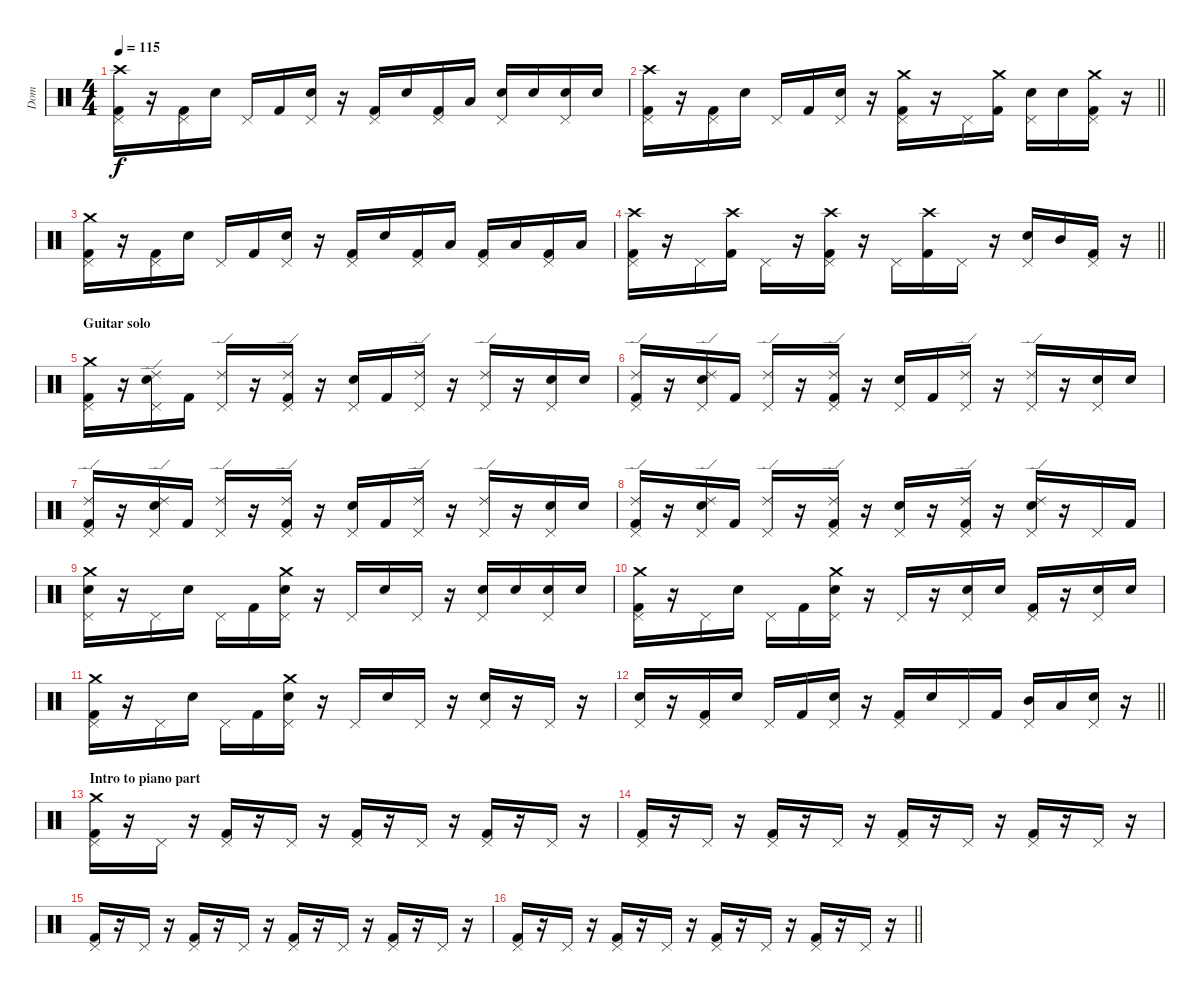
\track ("Dom" "Dom") {instrument percussion}
\staff {score}
\articulation defaults
\ts (4 4)
\tempo 115
\clef neutral
\ks c
("Crash high (hit)" "Pedal Hi-Hat (hit)" "Kick (hit) 2").16{dy f} r.16 ("Pedal Hi-Hat (hit)" "Kick (hit) 2").16 "Snare (hit) 2".16 "Pedal Hi-Hat (hit)".16 "Kick (hit) 2".16 ("Snare (hit) 2" "Pedal Hi-Hat (hit)").16 r.16 ("Pedal Hi-Hat (hit)" "Kick (hit) 2").16 "Snare (hit) 2".16 ("Pedal Hi-Hat (hit)" "Kick (hit) 2").16 "Low Floor Tom (hit)".16 ("Snare (hit) 2" "Pedal Hi-Hat (hit)").16 "Snare (hit) 2".16 ("Snare (hit) 2" "Pedal Hi-Hat (hit)").16 "Snare (hit) 2".16 |
\barLineRight lightlight
("Crash high (hit)" "Pedal Hi-Hat (hit)" "Kick (hit) 2").16 r.16 ("Pedal Hi-Hat (hit)" "Kick (hit) 2").16 "Snare (hit) 2".16 "Pedal Hi-Hat (hit)".16 "Kick (hit) 2".16 ("Snare (hit) 2" "Pedal Hi-Hat (hit)").16 r.16 ("Crash medium (hit)" "Pedal Hi-Hat (hit)" "Kick (hit) 2").16 r.16 "Pedal Hi-Hat (hit)".16 ("Crash medium (hit)" "Kick (hit) 2").16 ("Snare (hit) 2" "Pedal Hi-Hat (hit)").16 "Snare (hit) 2".16 ("Crash medium (hit)" "Pedal Hi-Hat (hit)" "Kick (hit) 2").16 r.16 |
("Crash medium (hit)" "Pedal Hi-Hat (hit)" "Kick (hit) 2").16 r.16 ("Pedal Hi-Hat (hit)" "Kick (hit) 2").16 "Snare (hit) 2".16 "Pedal Hi-Hat (hit)".16 "Kick (hit) 2".16 ("Snare (hit) 2" "Pedal Hi-Hat (hit)").16 r.16 ("Pedal Hi-Hat (hit)" "Kick (hit) 2").16 "Snare (hit) 2".16 ("Pedal Hi-Hat (hit)" "Kick (hit) 2").16 "Low Floor Tom (hit)".16 ("Pedal Hi-Hat (hit)" "Kick (hit) 2").16 "Low Floor Tom (hit)".16 ("Pedal Hi-Hat (hit)" "Kick (hit) 2").16 "Low Floor Tom (hit)".16 |
\barLineRight lightlight
("Crash high (hit)" "Pedal Hi-Hat (hit)" "Kick (hit) 2").16 r.16 "Pedal Hi-Hat (hit)".16 ("Crash high (hit)" "Kick (hit) 2").16 "Pedal Hi-Hat (hit)".16 r.16 ("Crash high (hit)" "Pedal Hi-Hat (hit)" "Kick (hit) 2").16 r.16 "Pedal Hi-Hat (hit)".16 ("Crash high (hit)" "Kick (hit) 2").16 "Pedal Hi-Hat (hit)".16 r.16 ("Snare (hit) 2" "Pedal Hi-Hat (hit)").16 "Mid Tom (hit)".16 ("Pedal Hi-Hat (hit)" "Kick (hit) 2").16 r.16 |
\section ("" "Guitar solo")
("Crash medium (hit)" "Pedal Hi-Hat (hit)" "Kick (hit) 2").16 r.16 ("Ride (edge) 2" "Snare (hit) 2" "Pedal Hi-Hat (hit)").16 "Kick (hit) 2".16 ("Ride (edge) 2" "Pedal Hi-Hat (hit)").16 r.16 ("Ride (edge) 2" "Pedal Hi-Hat (hit)" "Kick (hit) 2").16 r.16 ("Snare (hit) 2" "Pedal Hi-Hat (hit)").16 "Kick (hit) 2".16 ("Ride (edge) 2" "Pedal Hi-Hat (hit)").16 r.16 ("Ride (edge) 2" "Pedal Hi-Hat (hit)").16 r.16 ("Snare (hit) 2" "Pedal Hi-Hat (hit)").16 "Snare (hit) 2".16 |
("Ride (edge) 2" "Pedal Hi-Hat (hit)" "Kick (hit) 2").16 r.16 ("Ride (edge) 2" "Snare (hit) 2" "Pedal Hi-Hat (hit)").16 "Kick (hit) 2".16 ("Ride (edge) 2" "Pedal Hi-Hat (hit)").16 r.16 ("Ride (edge) 2" "Pedal Hi-Hat (hit)" "Kick (hit) 2").16 r.16 ("Snare (hit) 2" "Pedal Hi-Hat (hit)").16 "Kick (hit) 2".16 ("Ride (edge) 2" "Pedal Hi-Hat (hit)").16 r.16 ("Ride (edge) 2" "Pedal Hi-Hat (hit)").16 r.16 ("Snare (hit) 2" "Pedal Hi-Hat (hit)").16 "Snare (hit) 2".16 |
("Ride (edge) 2" "Pedal Hi-Hat (hit)" "Kick (hit) 2").16 r.16 ("Ride (edge) 2" "Snare (hit) 2" "Pedal Hi-Hat (hit)").16 "Kick (hit) 2".16 ("Ride (edge) 2" "Pedal Hi-Hat (hit)").16 r.16 ("Ride (edge) 2" "Pedal Hi-Hat (hit)" "Kick (hit) 2").16 r.16 ("Snare (hit) 2" "Pedal Hi-Hat (hit)").16 "Kick (hit) 2".16 ("Ride (edge) 2" "Pedal Hi-Hat (hit)").16 r.16 ("Ride (edge) 2" "Pedal Hi-Hat (hit)").16 r.16 ("Snare (hit) 2" "Pedal Hi-Hat (hit)").16 "Snare (hit) 2".16 |
("Ride (edge) 2" "Pedal Hi-Hat (hit)" "Kick (hit) 2").16 r.16 ("Ride (edge) 2" "Snare (hit) 2" "Pedal Hi-Hat (hit)").16 "Kick (hit) 2".16 ("Ride (edge) 2" "Pedal Hi-Hat (hit)").16 r.16 ("Ride (edge) 2" "Pedal Hi-Hat (hit)" "Kick (hit) 2").16 r.16 ("Snare (hit) 2" "Pedal Hi-Hat (hit)").16 r.16 ("Ride (edge) 2" "Pedal Hi-Hat (hit)" "Kick (hit) 2").16 r.16 ("Ride (edge) 2" "Snare (hit) 2" "Pedal Hi-Hat (hit)").16 r.16 "Pedal Hi-Hat (hit)".16 "Kick (hit) 2".16 |
("Crash medium (hit)" "Snare (hit) 2" "Pedal Hi-Hat (hit)").16 r.16 "Pedal Hi-Hat (hit)".16 "Snare (hit) 2".16 "Pedal Hi-Hat (hit)".16 "Kick (hit) 2".16 ("Crash medium (hit)" "Snare (hit) 2" "Pedal Hi-Hat (hit)").16 r.16 "Pedal Hi-Hat (hit)".16 "Snare (hit) 2".16 "Pedal Hi-Hat (hit)".16 r.16 ("Snare (hit) 2" "Pedal Hi-Hat (hit)").16 "Snare (hit) 2".16 ("Snare (hit) 2" "Pedal Hi-Hat (hit)").16 "Snare (hit) 2".16 |
("Crash medium (hit)" "Pedal Hi-Hat (hit)" "Kick (hit) 2").16 r.16 "Pedal Hi-Hat (hit)".16 "Snare (hit) 2".16 "Pedal Hi-Hat (hit)".16 "Kick (hit) 2".16 ("Crash medium (hit)" "Snare (hit) 2" "Pedal Hi-Hat (hit)").16 r.16 "Pedal Hi-Hat (hit)".16 r.16 ("Snare (hit) 2" "Pedal Hi-Hat (hit)").16 "Snare (hit) 2".16 ("Pedal Hi-Hat (hit)" "Kick (hit) 2").16 r.16 ("Snare (hit) 2" "Pedal Hi-Hat (hit)").16 "Snare (hit) 2".16 |
("Crash medium (hit)" "Pedal Hi-Hat (hit)" "Kick (hit) 2").16 r.16 "Pedal Hi-Hat (hit)".16 "Snare (hit) 2".16 "Pedal Hi-Hat (hit)".16 "Kick (hit) 2".16 ("Crash medium (hit)" "Snare (hit) 2" "Pedal Hi-Hat (hit)").16 r.16 "Pedal Hi-Hat (hit)".16 "Snare (hit) 2".16 "Pedal Hi-Hat (hit)".16 r.16 ("Snare (hit) 2" "Pedal Hi-Hat (hit)").16 r.16 "Pedal Hi-Hat (hit)".16 r.16 |
\barLineRight lightlight
("Snare (hit) 2" "Pedal Hi-Hat (hit)").16 r.16 ("Pedal Hi-Hat (hit)" "Kick (hit) 2").16 "Snare (hit) 2".16 "Pedal Hi-Hat (hit)".16 "Kick (hit) 2".16 ("Snare (hit) 2" "Pedal Hi-Hat (hit)").16 r.16 ("Pedal Hi-Hat (hit)" "Kick (hit) 2").16 "Snare (hit) 2".16 "Pedal Hi-Hat (hit)".16 "Kick (hit) 2".16 ("Mid Tom (hit)" "Pedal Hi-Hat (hit)").16 "Low Tom (hit)".16 ("Snare (hit) 2" "Pedal Hi-Hat (hit)").16 r.16 |
\section ("" "Intro to piano part")
("Crash medium (hit)" "Pedal Hi-Hat (hit)" "Kick (hit) 2").16 r.16 "Pedal Hi-Hat (hit)".16 r.16 ("Pedal Hi-Hat (hit)" "Kick (hit) 2").16 r.16 "Pedal Hi-Hat (hit)".16 r.16 ("Pedal Hi-Hat (hit)" "Kick (hit) 2").16 r.16 "Pedal Hi-Hat (hit)".16 r.16 ("Pedal Hi-Hat (hit)" "Kick (hit) 2").16 r.16 "Pedal Hi-Hat (hit)".16 r.16 |
("Pedal Hi-Hat (hit)" "Kick (hit) 2").16 r.16 "Pedal Hi-Hat (hit)".16 r.16 ("Pedal Hi-Hat (hit)" "Kick (hit) 2").16 r.16 "Pedal Hi-Hat (hit)".16 r.16 ("Pedal Hi-Hat (hit)" "Kick (hit) 2").16 r.16 "Pedal Hi-Hat (hit)".16 r.16 ("Pedal Hi-Hat (hit)" "Kick (hit) 2").16 r.16 "Pedal Hi-Hat (hit)".16 r.16 |
("Pedal Hi-Hat (hit)" "Kick (hit) 2").16 r.16 "Pedal Hi-Hat (hit)".16 r.16 ("Pedal Hi-Hat (hit)" "Kick (hit) 2").16 r.16 "Pedal Hi-Hat (hit)".16 r.16 ("Pedal Hi-Hat (hit)" "Kick (hit) 2").16 r.16 "Pedal Hi-Hat (hit)".16 r.16 ("Pedal Hi-Hat (hit)" "Kick (hit) 2").16 r.16 "Pedal Hi-Hat (hit)".16 r.16 |
\barLineRight lightlight
("Pedal Hi-Hat (hit)" "Kick (hit) 2").16 r.16 "Pedal Hi-Hat (hit)".16 r.16 ("Pedal Hi-Hat (hit)" "Kick (hit) 2").16 r.16 "Pedal Hi-Hat (hit)".16 r.16 ("Pedal Hi-Hat (hit)" "Kick (hit) 2").16 r.16 "Pedal Hi-Hat (hit)".16 r.16 ("Pedal Hi-Hat (hit)" "Kick (hit) 2").16 r.16 "Pedal Hi-Hat (hit)".16 r.16
